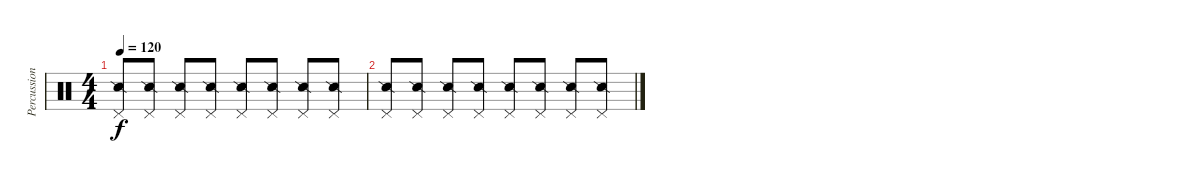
\track ("Percussion" "Percussion") {instrument percussion}
\staff {score}
\articulation defaults
\ts (4 4)
\tempo 120
\clef neutral
\ks c
("Pedal Hi-Hat (hit)" "Snare (side stick) 2").8{dy f} ("Pedal Hi-Hat (hit)" "Snare (side stick) 2").8 ("Pedal Hi-Hat (hit)" "Snare (side stick) 2").8 ("Pedal Hi-Hat (hit)" "Snare (side stick) 2").8 ("Pedal Hi-Hat (hit)" "Snare (side stick) 2").8 ("Pedal Hi-Hat (hit)" "Snare (side stick) 2").8 ("Pedal Hi-Hat (hit)" "Snare (side stick) 2").8 ("Pedal Hi-Hat (hit)" "Snare (side stick) 2").8 |
("Pedal Hi-Hat (hit)" "Snare (side stick) 2").8 ("Pedal Hi-Hat (hit)" "Snare (side stick) 2").8 ("Pedal Hi-Hat (hit)" "Snare (side stick) 2").8 ("Pedal Hi-Hat (hit)" "Snare (side stick) 2").8 ("Pedal Hi-Hat (hit)" "Snare (side stick) 2").8 ("Pedal Hi-Hat (hit)" "Snare (side stick) 2").8 ("Pedal Hi-Hat (hit)" "Snare (side stick) 2").8 ("Pedal Hi-Hat (hit)" "Snare (side stick) 2").8
